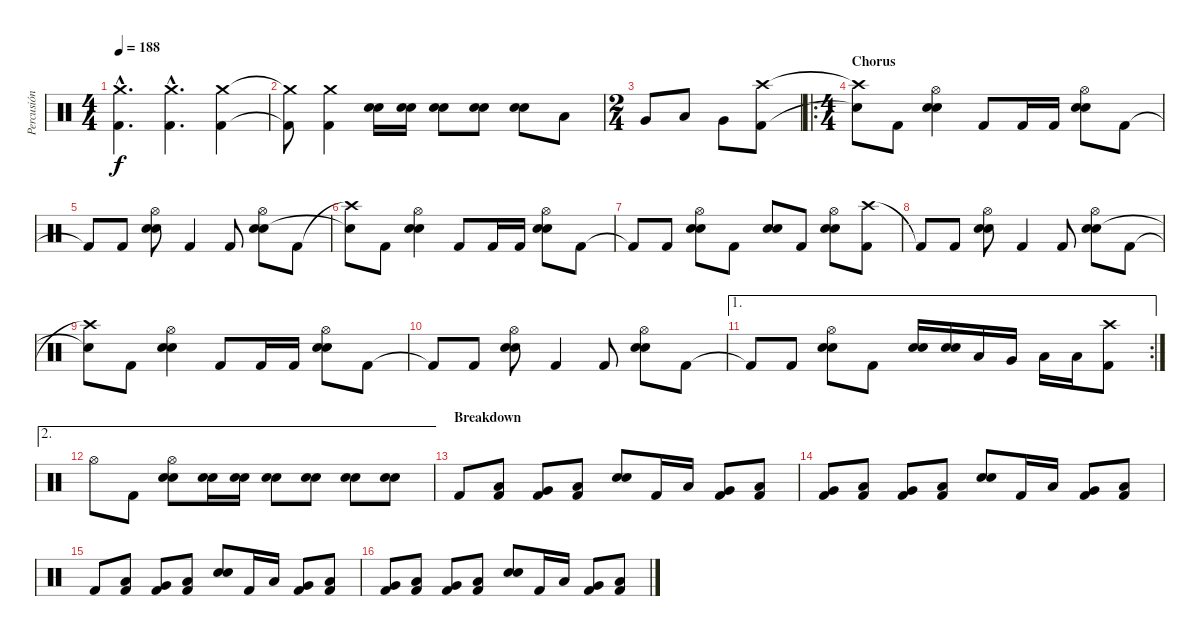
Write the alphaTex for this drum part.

\track ("Percusión" "Percusión") {instrument percussion}
\staff {score}
\articulation defaults
\ts (4 4)
\tempo 188
\clef neutral
\ks c
("Crash medium (hit)"{hac} "Kick (hit) 2"{hac}).4{d dy f} ("Crash medium (hit)"{hac} "Kick (hit) 2"{hac}).4{d} ("Crash medium (hit)" "Kick (hit) 2").4 |
("Crash medium (hit)"{t} "Kick (hit) 2"{t}).8 ("Crash medium (hit)" "Kick (hit) 2").4 ("Electric Snare (hit)" "Snare (hit) 2").16 ("Electric Snare (hit)" "Snare (hit) 2").16 ("Electric Snare (hit)" "Snare (hit) 2").8 ("Electric Snare (hit)" "Snare (hit) 2").8 ("Electric Snare (hit)" "Snare (hit) 2").8 "Low Tom (hit)".8 |
\ts (2 4)
"Very Low Tom (hit)".8 "Low Floor Tom (hit)".8 "Very Low Tom (hit)".8 ("Crash high (hit)" "Kick (hit) 2").8 |
\ro
\ts (4 4)
\section ("" "Chorus")
("Crash high (hit)"{t} "Snare (hit)"{t}).8 "Kick (hit) 2".8 ("Hi-Hat (open)" "Electric Snare (hit)" "Snare (hit) 2").4 "Kick (hit) 2".8 "Kick (hit) 2".16 "Kick (hit) 2".16 ("Hi-Hat (open)" "Electric Snare (hit)" "Snare (hit) 2").8 "Kick (hit) 2".8 |
"Kick (hit) 2"{t}.8 "Kick (hit) 2".8 ("Hi-Hat (open)" "Electric Snare (hit)" "Snare (hit) 2").8 "Kick (hit) 2".4 "Kick (hit) 2".8 ("Hi-Hat (open)" "Electric Snare (hit)" "Snare (hit) 2").8 "Kick (hit) 2".8 |
("Crash high (hit)"{t} "Snare (hit)"{t}).8 "Kick (hit) 2".8 ("Hi-Hat (open)" "Electric Snare (hit)" "Snare (hit) 2").4 "Kick (hit) 2".8 "Kick (hit) 2".16 "Kick (hit) 2".16 ("Hi-Hat (open)" "Electric Snare (hit)" "Snare (hit) 2").8 "Kick (hit) 2".8 |
"Kick (hit) 2"{t}.8 "Kick (hit) 2".8 ("Hi-Hat (open)" "Electric Snare (hit)" "Snare (hit) 2").8 "Kick (hit) 2".8 ("Electric Snare (hit)" "Snare (hit) 2").8 "Kick (hit) 2".8 ("Hi-Hat (open)" "Electric Snare (hit)" "Snare (hit) 2").8 ("Crash high (hit)" "Kick (hit) 2").8 |
"Kick (hit) 2"{t}.8 "Kick (hit) 2".8 ("Hi-Hat (open)" "Electric Snare (hit)" "Snare (hit) 2").8 "Kick (hit) 2".4 "Kick (hit) 2".8 ("Hi-Hat (open)" "Electric Snare (hit)" "Snare (hit) 2").8 "Kick (hit) 2".8 |
("Crash high (hit)"{t} "Snare (hit)"{t}).8 "Kick (hit) 2".8 ("Hi-Hat (open)" "Electric Snare (hit)" "Snare (hit) 2").4 "Kick (hit) 2".8 "Kick (hit) 2".16 "Kick (hit) 2".16 ("Hi-Hat (open)" "Electric Snare (hit)" "Snare (hit) 2").8 "Kick (hit) 2".8 |
"Kick (hit) 2"{t}.8 "Kick (hit) 2".8 ("Hi-Hat (open)" "Electric Snare (hit)" "Snare (hit) 2").8 "Kick (hit) 2".4 "Kick (hit) 2".8 ("Hi-Hat (open)" "Electric Snare (hit)" "Snare (hit) 2").8 "Kick (hit) 2".8 |
\ae 1
\rc 2 "Kick (hit) 2"{t}.8 "Kick (hit) 2".8
("Hi-Hat (open)" "Electric Snare (hit)" "Snare (hit) 2").8 "Kick (hit) 2".8 ("Electric Snare (hit)" "Snare (hit) 2").16 ("Electric Snare (hit)" "Snare (hit) 2").16 "Low Tom (hit)".16 "Very Low Tom (hit)".16 "Low Floor Tom (hit)".16 "Low Floor Tom (hit)".16 ("Crash high (hit)" "Kick (hit) 2").8 |
\ae 2 "Hi-Hat (open)".8 "Kick (hit) 2".8
("Hi-Hat (open)" "Electric Snare (hit)" "Snare (hit) 2").8 ("Electric Snare (hit)" "Snare (hit) 2").16 ("Electric Snare (hit)" "Snare (hit) 2").16 ("Electric Snare (hit)" "Snare (hit) 2").8 ("Electric Snare (hit)" "Snare (hit) 2").8 ("Electric Snare (hit)" "Snare (hit) 2").8 ("Electric Snare (hit)" "Snare (hit) 2").8 |
\section ("" "Breakdown")
"Kick (hit) 2".8 ("Low Tom (hit)" "Kick (hit) 2").8 ("Very Low Tom (hit)" "Kick (hit) 2").8 ("Low Floor Tom (hit)" "Kick (hit) 2").8 ("Electric Snare (hit)" "Snare (hit) 2").8 "Kick (hit) 2".16 "Low Tom (hit)".16 ("Very Low Tom (hit)" "Kick (hit) 2").8 ("Low Floor Tom (hit)" "Kick (hit) 2").8 |
("Very Low Tom (hit)" "Kick (hit) 2").8 ("Low Tom (hit)" "Kick (hit) 2").8 ("Very Low Tom (hit)" "Kick (hit) 2").8 ("Low Floor Tom (hit)" "Kick (hit) 2").8 ("Electric Snare (hit)" "Snare (hit) 2").8 "Kick (hit) 2".16 "Low Tom (hit)".16 ("Very Low Tom (hit)" "Kick (hit) 2").8 ("Low Floor Tom (hit)" "Kick (hit) 2").8 |
"Kick (hit) 2".8 ("Low Tom (hit)" "Kick (hit) 2").8 ("Very Low Tom (hit)" "Kick (hit) 2").8 ("Low Floor Tom (hit)" "Kick (hit) 2").8 ("Electric Snare (hit)" "Snare (hit) 2").8 "Kick (hit) 2".16 "Low Tom (hit)".16 ("Very Low Tom (hit)" "Kick (hit) 2").8 ("Low Floor Tom (hit)" "Kick (hit) 2").8 |
("Very Low Tom (hit)" "Kick (hit) 2").8 ("Low Tom (hit)" "Kick (hit) 2").8 ("Very Low Tom (hit)" "Kick (hit) 2").8 ("Low Floor Tom (hit)" "Kick (hit) 2").8 ("Electric Snare (hit)" "Snare (hit) 2").8 "Kick (hit) 2".16 "Low Tom (hit)".16 ("Very Low Tom (hit)" "Kick (hit) 2").8 ("Low Floor Tom (hit)" "Kick (hit) 2").8
